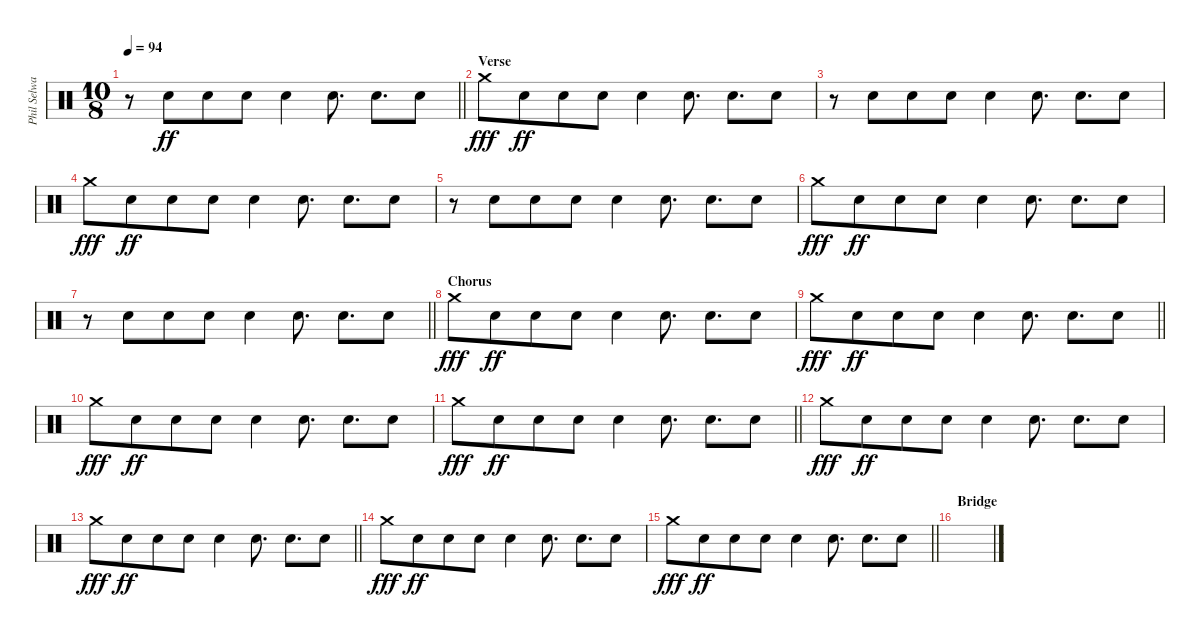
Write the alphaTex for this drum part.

\track ("Phil Selway" "Phil Selwa") {instrument percussion}
\staff {score}
\articulation defaults
\ts (10 8)
\tempo 94
\clef neutral
\barLineRight lightlight
\ks c
r.8{dy ff} "Hand Clap (hit)".8 "Hand Clap (hit)".8 "Hand Clap (hit)".8 "Hand Clap (hit)".4 "Hand Clap (hit)".8{d} "Hand Clap (hit)".8{d} "Hand Clap (hit)".8 |
\section ("" "Verse")
"Crash medium (hit)".8{dy fff} "Hand Clap (hit)".8{dy ff} "Hand Clap (hit)".8 "Hand Clap (hit)".8 "Hand Clap (hit)".4 "Hand Clap (hit)".8{d} "Hand Clap (hit)".8{d} "Hand Clap (hit)".8 |
r.8 "Hand Clap (hit)".8 "Hand Clap (hit)".8 "Hand Clap (hit)".8 "Hand Clap (hit)".4 "Hand Clap (hit)".8{d} "Hand Clap (hit)".8{d} "Hand Clap (hit)".8 |
"Crash medium (hit)".8{dy fff} "Hand Clap (hit)".8{dy ff} "Hand Clap (hit)".8 "Hand Clap (hit)".8 "Hand Clap (hit)".4 "Hand Clap (hit)".8{d} "Hand Clap (hit)".8{d} "Hand Clap (hit)".8 |
r.8 "Hand Clap (hit)".8 "Hand Clap (hit)".8 "Hand Clap (hit)".8 "Hand Clap (hit)".4 "Hand Clap (hit)".8{d} "Hand Clap (hit)".8{d} "Hand Clap (hit)".8 |
"Crash medium (hit)".8{dy fff} "Hand Clap (hit)".8{dy ff} "Hand Clap (hit)".8 "Hand Clap (hit)".8 "Hand Clap (hit)".4 "Hand Clap (hit)".8{d} "Hand Clap (hit)".8{d} "Hand Clap (hit)".8 |
\barLineRight lightlight
r.8 "Hand Clap (hit)".8 "Hand Clap (hit)".8 "Hand Clap (hit)".8 "Hand Clap (hit)".4 "Hand Clap (hit)".8{d} "Hand Clap (hit)".8{d} "Hand Clap (hit)".8 |
\section ("" "Chorus")
"Crash medium (hit)".8{dy fff} "Hand Clap (hit)".8{dy ff} "Hand Clap (hit)".8 "Hand Clap (hit)".8 "Hand Clap (hit)".4 "Hand Clap (hit)".8{d} "Hand Clap (hit)".8{d} "Hand Clap (hit)".8 |
\barLineRight lightlight "Crash medium (hit)".8{dy fff} "Hand Clap (hit)".8{dy ff} "Hand Clap (hit)".8 "Hand Clap (hit)".8 "Hand Clap (hit)".4 "Hand Clap (hit)".8{d} "Hand Clap (hit)".8{d} "Hand Clap (hit)".8
|
"Crash medium (hit)".8{dy fff} "Hand Clap (hit)".8{dy ff} "Hand Clap (hit)".8 "Hand Clap (hit)".8 "Hand Clap (hit)".4 "Hand Clap (hit)".8{d} "Hand Clap (hit)".8{d} "Hand Clap (hit)".8 |
\barLineRight lightlight "Crash medium (hit)".8{dy fff} "Hand Clap (hit)".8{dy ff} "Hand Clap (hit)".8 "Hand Clap (hit)".8 "Hand Clap (hit)".4 "Hand Clap (hit)".8{d} "Hand Clap (hit)".8{d} "Hand Clap (hit)".8
|
"Crash medium (hit)".8{dy fff} "Hand Clap (hit)".8{dy ff} "Hand Clap (hit)".8 "Hand Clap (hit)".8 "Hand Clap (hit)".4 "Hand Clap (hit)".8{d} "Hand Clap (hit)".8{d} "Hand Clap (hit)".8 |
\barLineRight lightlight "Crash medium (hit)".8{dy fff} "Hand Clap (hit)".8{dy ff} "Hand Clap (hit)".8 "Hand Clap (hit)".8 "Hand Clap (hit)".4 "Hand Clap (hit)".8{d} "Hand Clap (hit)".8{d} "Hand Clap (hit)".8
|
"Crash medium (hit)".8{dy fff} "Hand Clap (hit)".8{dy ff} "Hand Clap (hit)".8 "Hand Clap (hit)".8 "Hand Clap (hit)".4 "Hand Clap (hit)".8{d} "Hand Clap (hit)".8{d} "Hand Clap (hit)".8 |
\barLineRight lightlight "Crash medium (hit)".8{dy fff} "Hand Clap (hit)".8{dy ff} "Hand Clap (hit)".8 "Hand Clap (hit)".8 "Hand Clap (hit)".4 "Hand Clap (hit)".8{d} "Hand Clap (hit)".8{d} "Hand Clap (hit)".8
|
\section ("" "Bridge")
